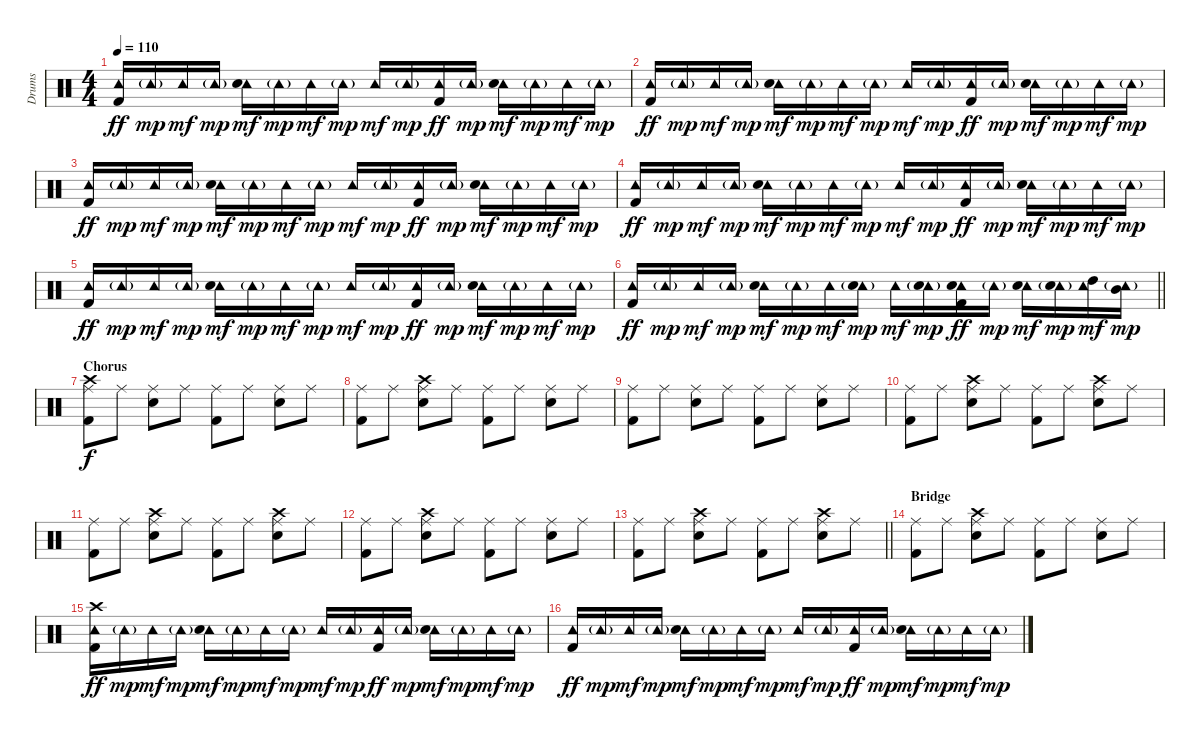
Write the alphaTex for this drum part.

\track ("Drums" "Drums") {instrument percussion}
\staff {score}
\articulation defaults
\ts (4 4)
\tempo 110
\clef neutral
\ks c
("Tambourine (hit)" "Kick (hit) 2").16{dy ff} "Tambourine (hit)"{g}.16{dy mp} "Tambourine (hit)".16{dy mf} "Tambourine (hit)"{g}.16{dy mp} ("Tambourine (hit)" "Snare (hit) 2").16{dy mf} "Tambourine (hit)"{g}.16{dy mp} "Tambourine (hit)".16{dy mf} "Tambourine (hit)"{g}.16{dy mp} "Tambourine (hit)".16{dy mf} "Tambourine (hit)"{g}.16{dy mp} ("Tambourine (hit)" "Kick (hit) 2").16{dy ff} "Tambourine (hit)"{g}.16{dy mp} ("Tambourine (hit)" "Snare (hit) 2").16{dy mf} "Tambourine (hit)"{g}.16{dy mp} "Tambourine (hit)".16{dy mf} "Tambourine (hit)"{g}.16{dy mp} |
("Tambourine (hit)" "Kick (hit) 2").16{dy ff} "Tambourine (hit)"{g}.16{dy mp} "Tambourine (hit)".16{dy mf} "Tambourine (hit)"{g}.16{dy mp} ("Tambourine (hit)" "Snare (hit) 2").16{dy mf} "Tambourine (hit)"{g}.16{dy mp} "Tambourine (hit)".16{dy mf} "Tambourine (hit)"{g}.16{dy mp} "Tambourine (hit)".16{dy mf} "Tambourine (hit)"{g}.16{dy mp} ("Tambourine (hit)" "Kick (hit) 2").16{dy ff} "Tambourine (hit)"{g}.16{dy mp} ("Tambourine (hit)" "Snare (hit) 2").16{dy mf} "Tambourine (hit)"{g}.16{dy mp} "Tambourine (hit)".16{dy mf} "Tambourine (hit)"{g}.16{dy mp} |
("Tambourine (hit)" "Kick (hit) 2").16{dy ff} "Tambourine (hit)"{g}.16{dy mp} "Tambourine (hit)".16{dy mf} "Tambourine (hit)"{g}.16{dy mp} ("Tambourine (hit)" "Snare (hit) 2").16{dy mf} "Tambourine (hit)"{g}.16{dy mp} "Tambourine (hit)".16{dy mf} "Tambourine (hit)"{g}.16{dy mp} "Tambourine (hit)".16{dy mf} "Tambourine (hit)"{g}.16{dy mp} ("Tambourine (hit)" "Kick (hit) 2").16{dy ff} "Tambourine (hit)"{g}.16{dy mp} ("Tambourine (hit)" "Snare (hit) 2").16{dy mf} "Tambourine (hit)"{g}.16{dy mp} "Tambourine (hit)".16{dy mf} "Tambourine (hit)"{g}.16{dy mp} |
("Tambourine (hit)" "Kick (hit) 2").16{dy ff} "Tambourine (hit)"{g}.16{dy mp} "Tambourine (hit)".16{dy mf} "Tambourine (hit)"{g}.16{dy mp} ("Tambourine (hit)" "Snare (hit) 2").16{dy mf} "Tambourine (hit)"{g}.16{dy mp} "Tambourine (hit)".16{dy mf} "Tambourine (hit)"{g}.16{dy mp} "Tambourine (hit)".16{dy mf} "Tambourine (hit)"{g}.16{dy mp} ("Tambourine (hit)" "Kick (hit) 2").16{dy ff} "Tambourine (hit)"{g}.16{dy mp} ("Tambourine (hit)" "Snare (hit) 2").16{dy mf} "Tambourine (hit)"{g}.16{dy mp} "Tambourine (hit)".16{dy mf} "Tambourine (hit)"{g}.16{dy mp} |
("Tambourine (hit)" "Kick (hit) 2").16{dy ff} "Tambourine (hit)"{g}.16{dy mp} "Tambourine (hit)".16{dy mf} "Tambourine (hit)"{g}.16{dy mp} ("Tambourine (hit)" "Snare (hit) 2").16{dy mf} "Tambourine (hit)"{g}.16{dy mp} "Tambourine (hit)".16{dy mf} "Tambourine (hit)"{g}.16{dy mp} "Tambourine (hit)".16{dy mf} "Tambourine (hit)"{g}.16{dy mp} ("Tambourine (hit)" "Kick (hit) 2").16{dy ff} "Tambourine (hit)"{g}.16{dy mp} ("Tambourine (hit)" "Snare (hit) 2").16{dy mf} "Tambourine (hit)"{g}.16{dy mp} "Tambourine (hit)".16{dy mf} "Tambourine (hit)"{g}.16{dy mp} |
\barLineRight lightlight
("Tambourine (hit)" "Kick (hit) 2").16{dy ff} "Tambourine (hit)"{g}.16{dy mp} "Tambourine (hit)".16{dy mf} "Tambourine (hit)"{g}.16{dy mp} ("Tambourine (hit)" "Snare (hit) 2").16{dy mf} "Tambourine (hit)"{g}.16{dy mp} "Tambourine (hit)".16{dy mf} ("Tambourine (hit)"{g} "Snare (hit) 2").16{dy mp} "Tambourine (hit)".16{dy mf} ("Tambourine (hit)"{g} "Snare (hit) 2").16{dy mp} ("Tambourine (hit)" "Snare (hit) 2" "Kick (hit) 2").16{dy ff} "Tambourine (hit)"{g}.16{dy mp} ("Tambourine (hit)" "Snare (hit) 2").16{dy mf} ("Tambourine (hit)"{g} "Snare (hit) 2").16{dy mp} ("Tambourine (hit)" "High Tom (hit)").16{dy mf} ("Tambourine (hit)"{g} "Mid Tom (hit)").16{dy mp} |
\section ("" "Chorus")
("Crash high (hit)" "Ride (middle)" "Kick (hit) 2").8{dy f} "Ride (middle)".8 ("Ride (middle)" "Snare (hit) 2").8 "Ride (middle)".8 ("Ride (middle)" "Kick (hit) 2").8 "Ride (middle)".8 ("Ride (middle)" "Snare (hit) 2").8 "Ride (middle)".8 |
("Ride (middle)" "Kick (hit) 2").8 "Ride (middle)".8 ("Crash high (hit)" "Ride (middle)" "Snare (hit) 2").8 "Ride (middle)".8 ("Ride (middle)" "Kick (hit) 2").8 "Ride (middle)".8 ("Ride (middle)" "Snare (hit) 2").8 "Ride (middle)".8 |
("Ride (middle)" "Kick (hit) 2").8 "Ride (middle)".8 ("Ride (middle)" "Snare (hit) 2").8 "Ride (middle)".8 ("Ride (middle)" "Kick (hit) 2").8 "Ride (middle)".8 ("Ride (middle)" "Snare (hit) 2").8 "Ride (middle)".8 |
("Ride (middle)" "Kick (hit) 2").8 "Ride (middle)".8 ("Crash high (hit)" "Ride (middle)" "Snare (hit) 2").8 "Ride (middle)".8 ("Ride (middle)" "Kick (hit) 2").8 "Ride (middle)".8 ("Crash high (hit)" "Ride (middle)" "Snare (hit) 2").8 "Ride (middle)".8 |
("Ride (middle)" "Kick (hit) 2").8 "Ride (middle)".8 ("Crash high (hit)" "Ride (middle)" "Snare (hit) 2").8 "Ride (middle)".8 ("Ride (middle)" "Kick (hit) 2").8 "Ride (middle)".8 ("Crash high (hit)" "Ride (middle)" "Snare (hit) 2").8 "Ride (middle)".8 |
("Ride (middle)" "Kick (hit) 2").8 "Ride (middle)".8 ("Crash high (hit)" "Ride (middle)" "Snare (hit) 2").8 "Ride (middle)".8 ("Ride (middle)" "Kick (hit) 2").8 "Ride (middle)".8 ("Ride (middle)" "Snare (hit) 2").8 "Ride (middle)".8 |
\barLineRight lightlight
("Ride (middle)" "Kick (hit) 2").8 "Ride (middle)".8 ("Crash high (hit)" "Ride (middle)" "Snare (hit) 2").8 "Ride (middle)".8 ("Ride (middle)" "Kick (hit) 2").8 "Ride (middle)".8 ("Crash high (hit)" "Ride (middle)" "Snare (hit) 2").8 "Ride (middle)".8 |
\section ("" "Bridge")
("Ride (middle)" "Kick (hit) 2").8 "Ride (middle)".8 ("Crash high (hit)" "Ride (middle)" "Snare (hit) 2").8 "Ride (middle)".8 ("Ride (middle)" "Kick (hit) 2").8 "Ride (middle)".8 ("Ride (middle)" "Snare (hit) 2").8 "Ride (middle)".8 |
("Crash high (hit)" "Tambourine (hit)" "Kick (hit) 2").16{dy ff} "Tambourine (hit)"{g}.16{dy mp} "Tambourine (hit)".16{dy mf} "Tambourine (hit)"{g}.16{dy mp} ("Tambourine (hit)" "Snare (hit) 2").16{dy mf} "Tambourine (hit)"{g}.16{dy mp} "Tambourine (hit)".16{dy mf} "Tambourine (hit)"{g}.16{dy mp} "Tambourine (hit)".16{dy mf} "Tambourine (hit)"{g}.16{dy mp} ("Tambourine (hit)" "Kick (hit) 2").16{dy ff} "Tambourine (hit)"{g}.16{dy mp} ("Tambourine (hit)" "Snare (hit) 2").16{dy mf} "Tambourine (hit)"{g}.16{dy mp} "Tambourine (hit)".16{dy mf} "Tambourine (hit)"{g}.16{dy mp} |
("Tambourine (hit)" "Kick (hit) 2").16{dy ff} "Tambourine (hit)"{g}.16{dy mp} "Tambourine (hit)".16{dy mf} "Tambourine (hit)"{g}.16{dy mp} ("Tambourine (hit)" "Snare (hit) 2").16{dy mf} "Tambourine (hit)"{g}.16{dy mp} "Tambourine (hit)".16{dy mf} "Tambourine (hit)"{g}.16{dy mp} "Tambourine (hit)".16{dy mf} "Tambourine (hit)"{g}.16{dy mp} ("Tambourine (hit)" "Kick (hit) 2").16{dy ff} "Tambourine (hit)"{g}.16{dy mp} ("Tambourine (hit)" "Snare (hit) 2").16{dy mf} "Tambourine (hit)"{g}.16{dy mp} "Tambourine (hit)".16{dy mf} "Tambourine (hit)"{g}.16{dy mp}
